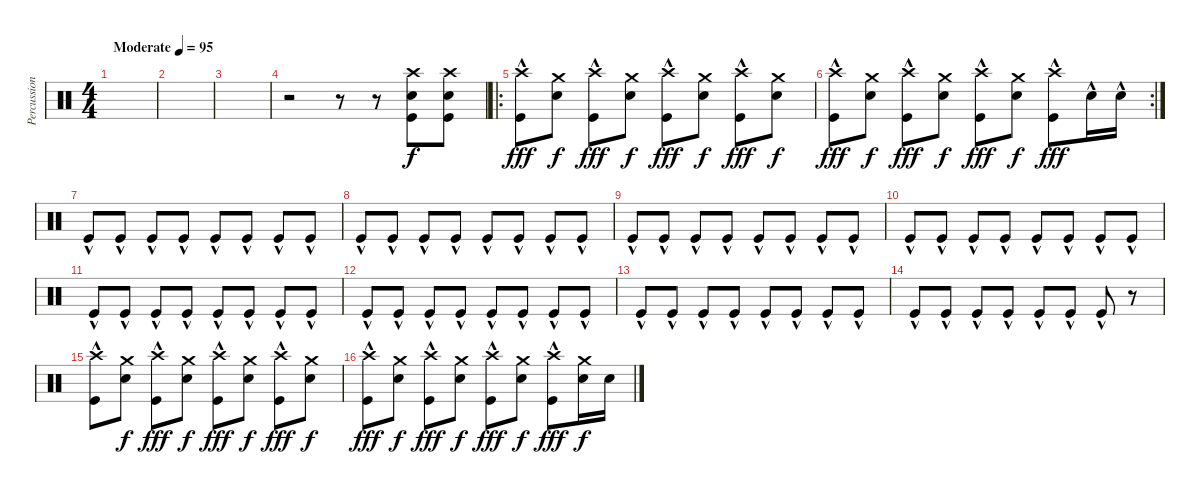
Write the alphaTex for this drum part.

\track ("Percussion" "Percussion") {instrument percussion}
\staff {score}
\articulation defaults
\ts (4 4)
\tempo (95 "Moderate")
\clef neutral
\ks c
|
|
|
r.2 r.8 r.8 ("Crash high (hit)" "Electric Snare (hit)" "Kick (hit)").8 ("Crash high (hit)" "Electric Snare (hit)" "Kick (hit)").8 |
\ro
("Crash high (hit)" "Kick (hit)"{hac}).8{dy fff} ("Crash medium (hit)" "Electric Snare (hit)").8{dy f} ("Crash high (hit)" "Kick (hit)"{hac}).8{dy fff} ("Crash medium (hit)" "Electric Snare (hit)").8{dy f} ("Crash high (hit)" "Kick (hit)"{hac}).8{dy fff} ("Crash medium (hit)" "Electric Snare (hit)").8{dy f} ("Crash high (hit)" "Kick (hit)"{hac}).8{dy fff} ("Crash medium (hit)" "Electric Snare (hit)").8{dy f} |
\rc 2
("Crash high (hit)" "Kick (hit)"{hac}).8{dy fff} ("Crash medium (hit)" "Electric Snare (hit)").8{dy f} ("Crash high (hit)" "Kick (hit)"{hac}).8{dy fff} ("Crash medium (hit)" "Electric Snare (hit)").8{dy f} ("Crash high (hit)" "Kick (hit)"{hac}).8{dy fff} ("Crash medium (hit)" "Electric Snare (hit)").8{dy f} ("Crash high (hit)" "Kick (hit)"{hac}).8{dy fff} "Electric Snare (hit)"{hac}.16 "Electric Snare (hit)"{hac}.16 |
"Kick (hit)"{hac}.8 "Kick (hit)"{hac}.8 "Kick (hit)"{hac}.8 "Kick (hit)"{hac}.8 "Kick (hit)"{hac}.8 "Kick (hit)"{hac}.8 "Kick (hit)"{hac}.8 "Kick (hit)"{hac}.8 |
"Kick (hit)"{hac}.8 "Kick (hit)"{hac}.8 "Kick (hit)"{hac}.8 "Kick (hit)"{hac}.8 "Kick (hit)"{hac}.8 "Kick (hit)"{hac}.8 "Kick (hit)"{hac}.8 "Kick (hit)"{hac}.8 |
"Kick (hit)"{hac}.8 "Kick (hit)"{hac}.8 "Kick (hit)"{hac}.8 "Kick (hit)"{hac}.8 "Kick (hit)"{hac}.8 "Kick (hit)"{hac}.8 "Kick (hit)"{hac}.8 "Kick (hit)"{hac}.8 |
"Kick (hit)"{hac}.8 "Kick (hit)"{hac}.8 "Kick (hit)"{hac}.8 "Kick (hit)"{hac}.8 "Kick (hit)"{hac}.8 "Kick (hit)"{hac}.8 "Kick (hit)"{hac}.8 "Kick (hit)"{hac}.8 |
"Kick (hit)"{hac}.8 "Kick (hit)"{hac}.8 "Kick (hit)"{hac}.8 "Kick (hit)"{hac}.8 "Kick (hit)"{hac}.8 "Kick (hit)"{hac}.8 "Kick (hit)"{hac}.8 "Kick (hit)"{hac}.8 |
"Kick (hit)"{hac}.8 "Kick (hit)"{hac}.8 "Kick (hit)"{hac}.8 "Kick (hit)"{hac}.8 "Kick (hit)"{hac}.8 "Kick (hit)"{hac}.8 "Kick (hit)"{hac}.8 "Kick (hit)"{hac}.8 |
"Kick (hit)"{hac}.8 "Kick (hit)"{hac}.8 "Kick (hit)"{hac}.8 "Kick (hit)"{hac}.8 "Kick (hit)"{hac}.8 "Kick (hit)"{hac}.8 "Kick (hit)"{hac}.8 "Kick (hit)"{hac}.8 |
"Kick (hit)"{hac}.8 "Kick (hit)"{hac}.8 "Kick (hit)"{hac}.8 "Kick (hit)"{hac}.8 "Kick (hit)"{hac}.8 "Kick (hit)"{hac}.8 "Kick (hit)"{hac}.8 r.8 |
("Crash high (hit)" "Kick (hit)"{hac}).8 ("Crash medium (hit)" "Electric Snare (hit)").8{dy f} ("Crash high (hit)" "Kick (hit)"{hac}).8{dy fff} ("Crash medium (hit)" "Electric Snare (hit)").8{dy f} ("Crash high (hit)" "Kick (hit)"{hac}).8{dy fff} ("Crash medium (hit)" "Electric Snare (hit)").8{dy f} ("Crash high (hit)" "Kick (hit)"{hac}).8{dy fff} ("Crash medium (hit)" "Electric Snare (hit)").8{dy f} |
("Crash high (hit)" "Kick (hit)"{hac}).8{dy fff} ("Crash medium (hit)" "Electric Snare (hit)").8{dy f} ("Crash high (hit)" "Kick (hit)"{hac}).8{dy fff} ("Crash medium (hit)" "Electric Snare (hit)").8{dy f} ("Crash high (hit)" "Kick (hit)"{hac}).8{dy fff} ("Crash medium (hit)" "Electric Snare (hit)").8{dy f} ("Crash high (hit)" "Kick (hit)"{hac}).8{dy fff} ("Crash medium (hit)" "Electric Snare (hit)").16{dy f} "Electric Snare (hit)".16
